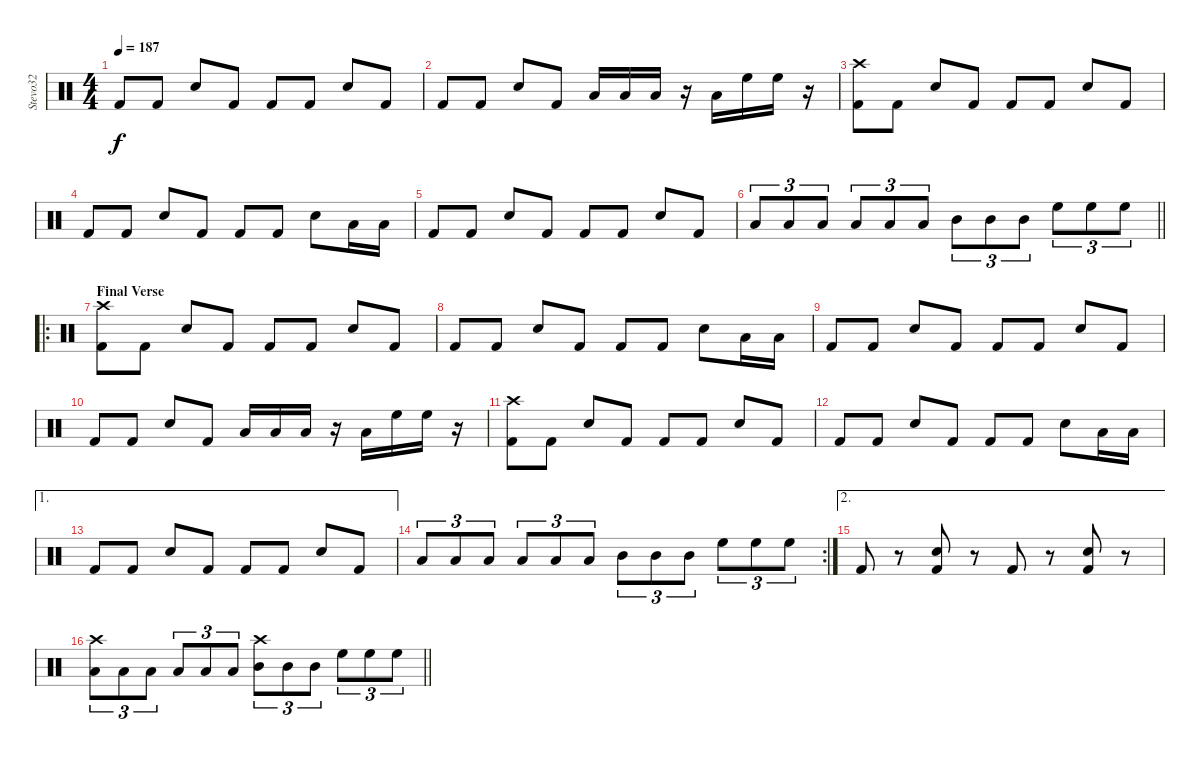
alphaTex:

\track ("Stevo32" "Stevo32") {instrument percussion}
\staff {score}
\articulation defaults
\ts (4 4)
\tempo 187
\clef neutral
\ks c "Kick (hit) 2".8{dy f} "Kick (hit) 2".8 "Snare (hit) 2".8 "Kick (hit) 2".8 "Kick (hit) 2".8 "Kick (hit) 2".8 "Snare (hit) 2".8 "Kick (hit) 2".8
|
"Kick (hit) 2".8 "Kick (hit) 2".8 "Snare (hit) 2".8 "Kick (hit) 2".8 "Low Floor Tom (hit)".16 "Low Floor Tom (hit)".16 "Low Tom (hit)".16 r.16 "Low Tom (hit)".16 "High Floor Tom (hit)".16 "High Floor Tom (hit)".16 r.16 |
("Kick (hit) 2" "Crash high (hit)").8 "Kick (hit) 2".8 "Snare (hit) 2".8 "Kick (hit) 2".8 "Kick (hit) 2".8 "Kick (hit) 2".8 "Snare (hit) 2".8 "Kick (hit) 2".8 |
"Kick (hit) 2".8 "Kick (hit) 2".8 "Snare (hit) 2".8 "Kick (hit) 2".8 "Kick (hit) 2".8 "Kick (hit) 2".8 "Snare (hit) 2".8 "Low Floor Tom (hit)".16 "Low Floor Tom (hit)".16 |
"Kick (hit) 2".8 "Kick (hit) 2".8 "Snare (hit) 2".8 "Kick (hit) 2".8 "Kick (hit) 2".8 "Kick (hit) 2".8 "Snare (hit) 2".8 "Kick (hit) 2".8 |
\barLineRight lightlight "Low Floor Tom (hit)".8{tu (3 2)} "Low Floor Tom (hit)".8{tu (3 2)} "Low Floor Tom (hit)".8{tu (3 2)} "Low Tom (hit)".8{tu (3 2)} "Low Tom (hit)".8{tu (3 2)} "Low Tom (hit)".8{tu (3 2)} "Mid Tom (hit)".8{tu (3 2)} "Mid Tom (hit)".8{tu (3 2)} "Mid Tom (hit)".8{tu (3 2)} "High Floor Tom (hit)".8{tu (3 2)} "High Floor Tom (hit)".8{tu (3 2)} "High Floor Tom (hit)".8{tu (3 2)}
|
\ro
\section ("" "Final Verse")
("Kick (hit) 2" "Crash high (hit)").8 "Kick (hit) 2".8 "Snare (hit) 2".8 "Kick (hit) 2".8 "Kick (hit) 2".8 "Kick (hit) 2".8 "Snare (hit) 2".8 "Kick (hit) 2".8 |
"Kick (hit) 2".8 "Kick (hit) 2".8 "Snare (hit) 2".8 "Kick (hit) 2".8 "Kick (hit) 2".8 "Kick (hit) 2".8 "Snare (hit) 2".8 "Low Floor Tom (hit)".16 "Low Floor Tom (hit)".16 |
"Kick (hit) 2".8 "Kick (hit) 2".8 "Snare (hit) 2".8 "Kick (hit) 2".8 "Kick (hit) 2".8 "Kick (hit) 2".8 "Snare (hit) 2".8 "Kick (hit) 2".8 |
"Kick (hit) 2".8 "Kick (hit) 2".8 "Snare (hit) 2".8 "Kick (hit) 2".8 "Low Floor Tom (hit)".16 "Low Floor Tom (hit)".16 "Low Tom (hit)".16 r.16 "Low Tom (hit)".16 "High Floor Tom (hit)".16 "High Floor Tom (hit)".16 r.16 |
("Kick (hit) 2" "Crash high (hit)").8 "Kick (hit) 2".8 "Snare (hit) 2".8 "Kick (hit) 2".8 "Kick (hit) 2".8 "Kick (hit) 2".8 "Snare (hit) 2".8 "Kick (hit) 2".8 |
"Kick (hit) 2".8 "Kick (hit) 2".8 "Snare (hit) 2".8 "Kick (hit) 2".8 "Kick (hit) 2".8 "Kick (hit) 2".8 "Snare (hit) 2".8 "Low Floor Tom (hit)".16 "Low Floor Tom (hit)".16 |
\ae 1 "Kick (hit) 2".8 "Kick (hit) 2".8 "Snare (hit) 2".8 "Kick (hit) 2".8 "Kick (hit) 2".8 "Kick (hit) 2".8 "Snare (hit) 2".8 "Kick (hit) 2".8
|
\rc 2 "Low Floor Tom (hit)".8{tu (3 2)} "Low Floor Tom (hit)".8{tu (3 2)} "Low Floor Tom (hit)".8{tu (3 2)} "Low Tom (hit)".8{tu (3 2)} "Low Tom (hit)".8{tu (3 2)} "Low Tom (hit)".8{tu (3 2)} "Mid Tom (hit)".8{tu (3 2)} "Mid Tom (hit)".8{tu (3 2)} "Mid Tom (hit)".8{tu (3 2)} "High Floor Tom (hit)".8{tu (3 2)} "High Floor Tom (hit)".8{tu (3 2)} "High Floor Tom (hit)".8{tu (3 2)}
|
\ae 2 "Kick (hit) 2".8
r.8 ("Kick (hit) 2" "Snare (hit) 2").8 r.8 "Kick (hit) 2".8 r.8 ("Kick (hit) 2" "Snare (hit) 2").8 r.8 |
\barLineRight lightlight
("Crash high (hit)" "Low Floor Tom (hit)").8{tu (3 2)} "Low Floor Tom (hit)".8{tu (3 2)} "Low Floor Tom (hit)".8{tu (3 2)} "Low Tom (hit)".8{tu (3 2)} "Low Tom (hit)".8{tu (3 2)} "Low Tom (hit)".8{tu (3 2)} ("Crash high (hit)" "Mid Tom (hit)").8{tu (3 2)} "Mid Tom (hit)".8{tu (3 2)} "Mid Tom (hit)".8{tu (3 2)} "High Floor Tom (hit)".8{tu (3 2)} "High Floor Tom (hit)".8{tu (3 2)} "High Floor Tom (hit)".8{tu (3 2)}
